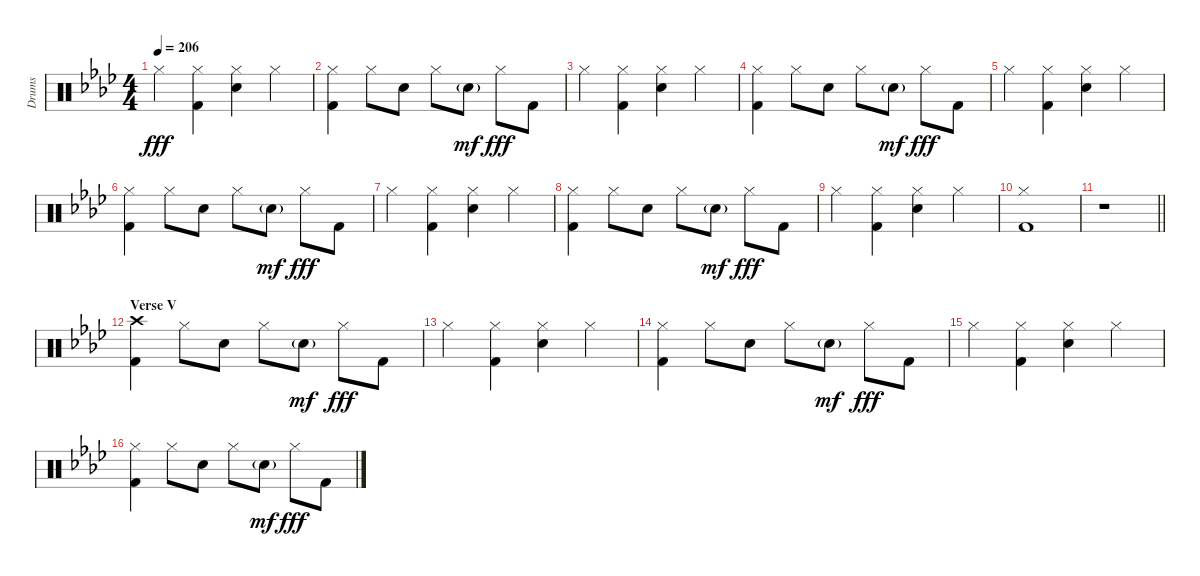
\track ("Drums" "Drums") {instrument percussion}
\staff {score}
\articulation defaults
\ts (4 4)
\tempo 206
\clef neutral
\ks ab "Hi-Hat (closed)".4{dy fff}
("Hi-Hat (closed)" "Kick (hit) 2").4 ("Hi-Hat (closed)" "Electric Snare (hit)").4 "Hi-Hat (closed)".4 |
("Hi-Hat (closed)" "Kick (hit) 2").4 "Hi-Hat (closed)".8 "Electric Snare (hit)".8 "Hi-Hat (closed)".8 "Electric Snare (hit)"{g}.8{dy mf} "Hi-Hat (closed)".8{dy fff} "Kick (hit) 2".8 |
"Hi-Hat (closed)".4 ("Hi-Hat (closed)" "Kick (hit) 2").4 ("Hi-Hat (closed)" "Electric Snare (hit)").4 "Hi-Hat (closed)".4 |
("Hi-Hat (closed)" "Kick (hit) 2").4 "Hi-Hat (closed)".8 "Electric Snare (hit)".8 "Hi-Hat (closed)".8 "Electric Snare (hit)"{g}.8{dy mf} "Hi-Hat (closed)".8{dy fff} "Kick (hit) 2".8 |
"Hi-Hat (closed)".4 ("Hi-Hat (closed)" "Kick (hit) 2").4 ("Hi-Hat (closed)" "Electric Snare (hit)").4 "Hi-Hat (closed)".4 |
("Hi-Hat (closed)" "Kick (hit) 2").4 "Hi-Hat (closed)".8 "Electric Snare (hit)".8 "Hi-Hat (closed)".8 "Electric Snare (hit)"{g}.8{dy mf} "Hi-Hat (closed)".8{dy fff} "Kick (hit) 2".8 |
"Hi-Hat (closed)".4 ("Hi-Hat (closed)" "Kick (hit) 2").4 ("Hi-Hat (closed)" "Electric Snare (hit)").4 "Hi-Hat (closed)".4 |
("Hi-Hat (closed)" "Kick (hit) 2").4 "Hi-Hat (closed)".8 "Electric Snare (hit)".8 "Hi-Hat (closed)".8 "Electric Snare (hit)"{g}.8{dy mf} "Hi-Hat (closed)".8{dy fff} "Kick (hit) 2".8 |
"Hi-Hat (closed)".4 ("Hi-Hat (closed)" "Kick (hit) 2").4 ("Hi-Hat (closed)" "Electric Snare (hit)").4 "Hi-Hat (closed)".4 |
("Hi-Hat (closed)" "Kick (hit) 2").1 |
\barLineRight lightlight
r.1 |
\section ("" "Verse V")
("Crash high (hit)" "Kick (hit) 2").4 "Hi-Hat (closed)".8 "Electric Snare (hit)".8 "Hi-Hat (closed)".8 "Electric Snare (hit)"{g}.8{dy mf} "Hi-Hat (closed)".8{dy fff} "Kick (hit) 2".8 |
"Hi-Hat (closed)".4 ("Hi-Hat (closed)" "Kick (hit) 2").4 ("Hi-Hat (closed)" "Electric Snare (hit)").4 "Hi-Hat (closed)".4 |
("Hi-Hat (closed)" "Kick (hit) 2").4 "Hi-Hat (closed)".8 "Electric Snare (hit)".8 "Hi-Hat (closed)".8 "Electric Snare (hit)"{g}.8{dy mf} "Hi-Hat (closed)".8{dy fff} "Kick (hit) 2".8 |
"Hi-Hat (closed)".4 ("Hi-Hat (closed)" "Kick (hit) 2").4 ("Hi-Hat (closed)" "Electric Snare (hit)").4 "Hi-Hat (closed)".4 |
("Hi-Hat (closed)" "Kick (hit) 2").4 "Hi-Hat (closed)".8 "Electric Snare (hit)".8 "Hi-Hat (closed)".8 "Electric Snare (hit)"{g}.8{dy mf} "Hi-Hat (closed)".8{dy fff} "Kick (hit) 2".8
